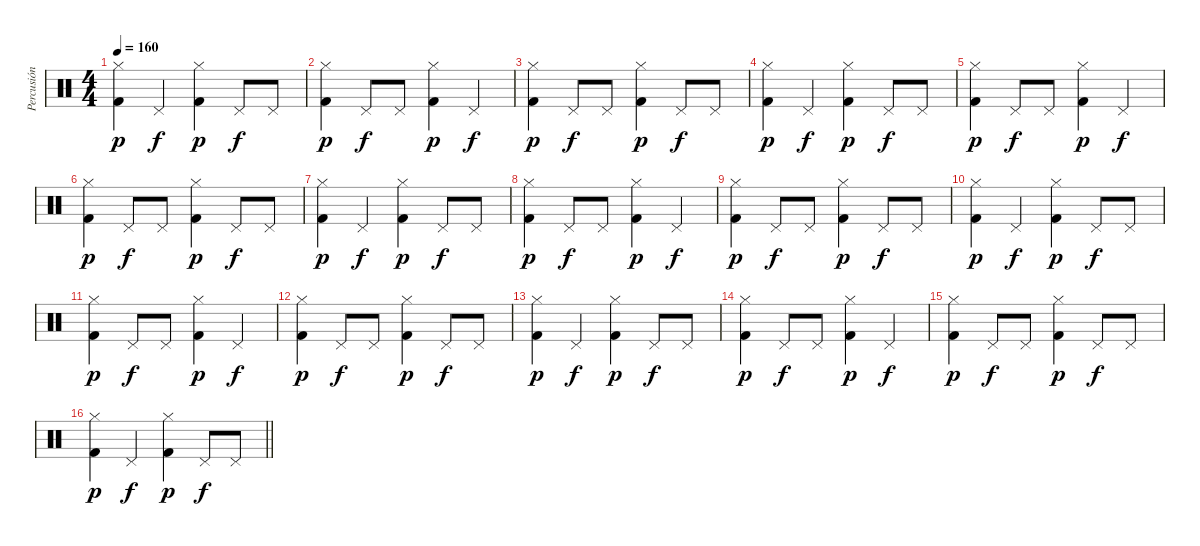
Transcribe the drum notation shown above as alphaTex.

\track ("Percusión" "Percusión") {instrument percussion}
\staff {score}
\articulation defaults
\ts (4 4)
\tempo 160
\clef neutral
\ks c
("Kick (hit) 2" "Hi-Hat (closed)").4{dy p} "Pedal Hi-Hat (hit)".4{dy f} ("Kick (hit) 2" "Hi-Hat (closed)").4{dy p} "Pedal Hi-Hat (hit)".8{dy f} "Pedal Hi-Hat (hit)".8 |
("Kick (hit) 2" "Hi-Hat (closed)").4{dy p} "Pedal Hi-Hat (hit)".8{dy f} "Pedal Hi-Hat (hit)".8 ("Kick (hit) 2" "Hi-Hat (closed)").4{dy p} "Pedal Hi-Hat (hit)".4{dy f} |
("Kick (hit) 2" "Hi-Hat (closed)").4{dy p} "Pedal Hi-Hat (hit)".8{dy f} "Pedal Hi-Hat (hit)".8 ("Kick (hit) 2" "Hi-Hat (closed)").4{dy p} "Pedal Hi-Hat (hit)".8{dy f} "Pedal Hi-Hat (hit)".8 |
("Kick (hit) 2" "Hi-Hat (closed)").4{dy p} "Pedal Hi-Hat (hit)".4{dy f} ("Kick (hit) 2" "Hi-Hat (closed)").4{dy p} "Pedal Hi-Hat (hit)".8{dy f} "Pedal Hi-Hat (hit)".8 |
("Kick (hit) 2" "Hi-Hat (closed)").4{dy p} "Pedal Hi-Hat (hit)".8{dy f} "Pedal Hi-Hat (hit)".8 ("Kick (hit) 2" "Hi-Hat (closed)").4{dy p} "Pedal Hi-Hat (hit)".4{dy f} |
("Kick (hit) 2" "Hi-Hat (closed)").4{dy p} "Pedal Hi-Hat (hit)".8{dy f} "Pedal Hi-Hat (hit)".8 ("Kick (hit) 2" "Hi-Hat (closed)").4{dy p} "Pedal Hi-Hat (hit)".8{dy f} "Pedal Hi-Hat (hit)".8 |
("Kick (hit) 2" "Hi-Hat (closed)").4{dy p} "Pedal Hi-Hat (hit)".4{dy f} ("Kick (hit) 2" "Hi-Hat (closed)").4{dy p} "Pedal Hi-Hat (hit)".8{dy f} "Pedal Hi-Hat (hit)".8 |
("Kick (hit) 2" "Hi-Hat (closed)").4{dy p} "Pedal Hi-Hat (hit)".8{dy f} "Pedal Hi-Hat (hit)".8 ("Kick (hit) 2" "Hi-Hat (closed)").4{dy p} "Pedal Hi-Hat (hit)".4{dy f} |
("Kick (hit) 2" "Hi-Hat (closed)").4{dy p} "Pedal Hi-Hat (hit)".8{dy f} "Pedal Hi-Hat (hit)".8 ("Kick (hit) 2" "Hi-Hat (closed)").4{dy p} "Pedal Hi-Hat (hit)".8{dy f} "Pedal Hi-Hat (hit)".8 |
("Kick (hit) 2" "Hi-Hat (closed)").4{dy p} "Pedal Hi-Hat (hit)".4{dy f} ("Kick (hit) 2" "Hi-Hat (closed)").4{dy p} "Pedal Hi-Hat (hit)".8{dy f} "Pedal Hi-Hat (hit)".8 |
("Kick (hit) 2" "Hi-Hat (closed)").4{dy p} "Pedal Hi-Hat (hit)".8{dy f} "Pedal Hi-Hat (hit)".8 ("Kick (hit) 2" "Hi-Hat (closed)").4{dy p} "Pedal Hi-Hat (hit)".4{dy f} |
("Kick (hit) 2" "Hi-Hat (closed)").4{dy p} "Pedal Hi-Hat (hit)".8{dy f} "Pedal Hi-Hat (hit)".8 ("Kick (hit) 2" "Hi-Hat (closed)").4{dy p} "Pedal Hi-Hat (hit)".8{dy f} "Pedal Hi-Hat (hit)".8 |
("Kick (hit) 2" "Hi-Hat (closed)").4{dy p} "Pedal Hi-Hat (hit)".4{dy f} ("Kick (hit) 2" "Hi-Hat (closed)").4{dy p} "Pedal Hi-Hat (hit)".8{dy f} "Pedal Hi-Hat (hit)".8 |
("Kick (hit) 2" "Hi-Hat (closed)").4{dy p} "Pedal Hi-Hat (hit)".8{dy f} "Pedal Hi-Hat (hit)".8 ("Kick (hit) 2" "Hi-Hat (closed)").4{dy p} "Pedal Hi-Hat (hit)".4{dy f} |
("Kick (hit) 2" "Hi-Hat (closed)").4{dy p} "Pedal Hi-Hat (hit)".8{dy f} "Pedal Hi-Hat (hit)".8 ("Kick (hit) 2" "Hi-Hat (closed)").4{dy p} "Pedal Hi-Hat (hit)".8{dy f} "Pedal Hi-Hat (hit)".8 |
\barLineRight lightlight
("Kick (hit) 2" "Hi-Hat (closed)").4{dy p} "Pedal Hi-Hat (hit)".4{dy f} ("Kick (hit) 2" "Hi-Hat (closed)").4{dy p} "Pedal Hi-Hat (hit)".8{dy f} "Pedal Hi-Hat (hit)".8
